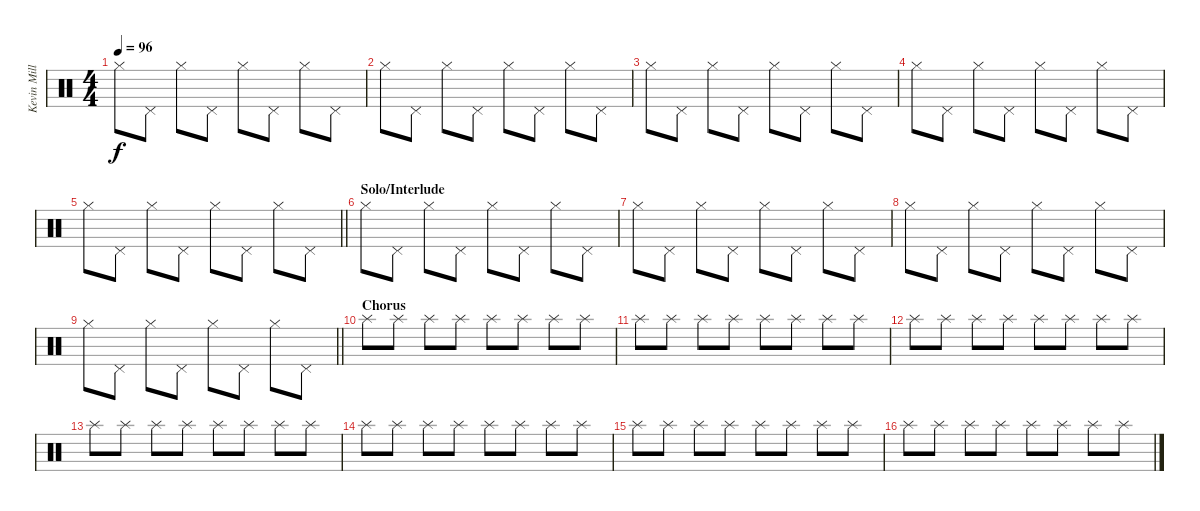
\track ("Kevin Miller (Drums)" "Kevin Mill") {instrument percussion}
\staff {score}
\articulation defaults
\ts (4 4)
\tempo 96
\clef neutral
\ks c "Hi-Hat (closed)".8{dy f} "Pedal Hi-Hat (hit)".8 "Hi-Hat (closed)".8 "Pedal Hi-Hat (hit)".8 "Hi-Hat (closed)".8 "Pedal Hi-Hat (hit)".8 "Hi-Hat (closed)".8 "Pedal Hi-Hat (hit)".8
|
"Hi-Hat (closed)".8 "Pedal Hi-Hat (hit)".8 "Hi-Hat (closed)".8 "Pedal Hi-Hat (hit)".8 "Hi-Hat (closed)".8 "Pedal Hi-Hat (hit)".8 "Hi-Hat (closed)".8 "Pedal Hi-Hat (hit)".8 |
"Hi-Hat (closed)".8 "Pedal Hi-Hat (hit)".8 "Hi-Hat (closed)".8 "Pedal Hi-Hat (hit)".8 "Hi-Hat (closed)".8 "Pedal Hi-Hat (hit)".8 "Hi-Hat (closed)".8 "Pedal Hi-Hat (hit)".8 |
"Hi-Hat (closed)".8 "Pedal Hi-Hat (hit)".8 "Hi-Hat (closed)".8 "Pedal Hi-Hat (hit)".8 "Hi-Hat (closed)".8 "Pedal Hi-Hat (hit)".8 "Hi-Hat (closed)".8 "Pedal Hi-Hat (hit)".8 |
\barLineRight lightlight "Hi-Hat (closed)".8 "Pedal Hi-Hat (hit)".8 "Hi-Hat (closed)".8 "Pedal Hi-Hat (hit)".8 "Hi-Hat (closed)".8 "Pedal Hi-Hat (hit)".8 "Hi-Hat (closed)".8 "Pedal Hi-Hat (hit)".8
|
\section ("" "Solo/Interlude")
"Hi-Hat (closed)".8 "Pedal Hi-Hat (hit)".8 "Hi-Hat (closed)".8 "Pedal Hi-Hat (hit)".8 "Hi-Hat (closed)".8 "Pedal Hi-Hat (hit)".8 "Hi-Hat (closed)".8 "Pedal Hi-Hat (hit)".8 |
"Hi-Hat (closed)".8 "Pedal Hi-Hat (hit)".8 "Hi-Hat (closed)".8 "Pedal Hi-Hat (hit)".8 "Hi-Hat (closed)".8 "Pedal Hi-Hat (hit)".8 "Hi-Hat (closed)".8 "Pedal Hi-Hat (hit)".8 |
"Hi-Hat (closed)".8 "Pedal Hi-Hat (hit)".8 "Hi-Hat (closed)".8 "Pedal Hi-Hat (hit)".8 "Hi-Hat (closed)".8 "Pedal Hi-Hat (hit)".8 "Hi-Hat (closed)".8 "Pedal Hi-Hat (hit)".8 |
\barLineRight lightlight "Hi-Hat (closed)".8 "Pedal Hi-Hat (hit)".8 "Hi-Hat (closed)".8 "Pedal Hi-Hat (hit)".8 "Hi-Hat (closed)".8 "Pedal Hi-Hat (hit)".8 "Hi-Hat (closed)".8 "Pedal Hi-Hat (hit)".8
|
\section ("" "Chorus")
"Splash (hit)".8 "Splash (hit)".8 "Splash (hit)".8 "Splash (hit)".8 "Splash (hit)".8 "Splash (hit)".8 "Splash (hit)".8 "Splash (hit)".8 |
"Splash (hit)".8 "Splash (hit)".8 "Splash (hit)".8 "Splash (hit)".8 "Splash (hit)".8 "Splash (hit)".8 "Splash (hit)".8 "Splash (hit)".8 |
"Splash (hit)".8 "Splash (hit)".8 "Splash (hit)".8 "Splash (hit)".8 "Splash (hit)".8 "Splash (hit)".8 "Splash (hit)".8 "Splash (hit)".8 |
"Splash (hit)".8 "Splash (hit)".8 "Splash (hit)".8 "Splash (hit)".8 "Splash (hit)".8 "Splash (hit)".8 "Splash (hit)".8 "Splash (hit)".8 |
"Splash (hit)".8 "Splash (hit)".8 "Splash (hit)".8 "Splash (hit)".8 "Splash (hit)".8 "Splash (hit)".8 "Splash (hit)".8 "Splash (hit)".8 |
"Splash (hit)".8 "Splash (hit)".8 "Splash (hit)".8 "Splash (hit)".8 "Splash (hit)".8 "Splash (hit)".8 "Splash (hit)".8 "Splash (hit)".8 |
"Splash (hit)".8 "Splash (hit)".8 "Splash (hit)".8 "Splash (hit)".8 "Splash (hit)".8 "Splash (hit)".8 "Splash (hit)".8 "Splash (hit)".8
